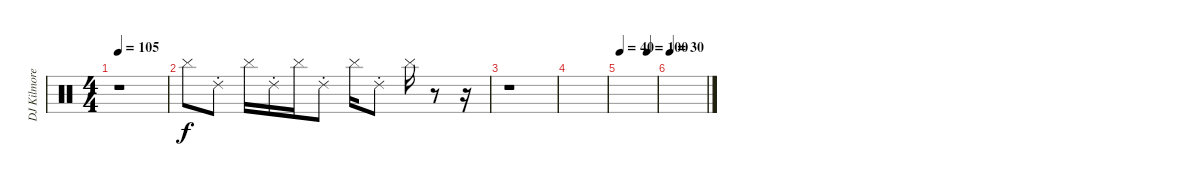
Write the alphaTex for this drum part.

\track ("DJ Kilmore" "DJ Kilmore") {instrument percussion}
\staff {score}
\articulation defaults
\ts (4 4)
\tempo 105
\clef neutral
\ks c
r.1{dy f} |
"Cymbal (hit)".8 "Ride (choke) 2".8 "Cymbal (hit)".16 "Ride (choke) 2".16 "Cymbal (hit)".16 "Ride (choke) 2".8 "Cymbal (hit)".16 "Ride (choke) 2".8 "Cymbal (hit)".16 r.8 r.16 |
r.1 |
|
\tempo 40
\tempo (100 0.75)
|
\tempo 20
\tempo 30
